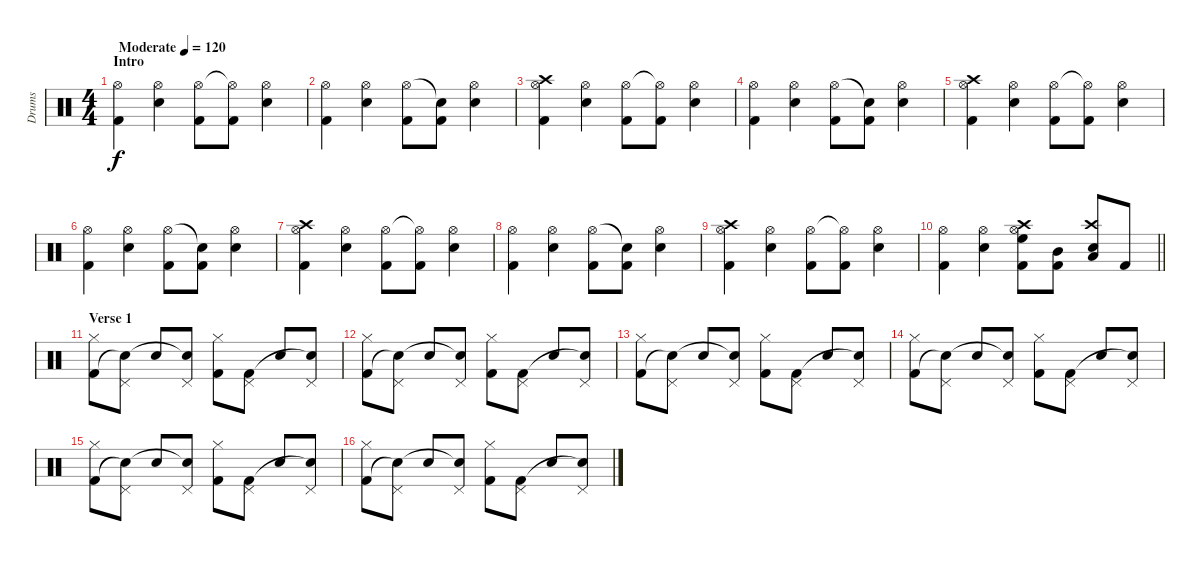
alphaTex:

\track ("Drums" "Drums") {instrument percussion}
\staff {score}
\articulation defaults
\ts (4 4)
\section ("" "Intro")
\tempo (120 "Moderate")
\clef neutral
\ks c
("Hi-Hat (open)" "Kick (hit) 2").4{dy f} ("Hi-Hat (open)" "Snare (hit) 2").4 ("Hi-Hat (open)" "Kick (hit) 2").8 ("Hi-Hat (open)"{t} "Kick (hit) 2").8 ("Hi-Hat (open)" "Snare (hit) 2").4 |
("Hi-Hat (open)" "Kick (hit) 2").4 ("Hi-Hat (open)" "Snare (hit) 2").4 ("Hi-Hat (open)" "Kick (hit) 2").8 ("Snare (hit)"{t} "Kick (hit) 2").8 ("Hi-Hat (open)" "Snare (hit) 2").4 |
("Crash high (hit)" "Hi-Hat (open)" "Kick (hit) 2").4 ("Hi-Hat (open)" "Snare (hit) 2").4 ("Hi-Hat (open)" "Kick (hit) 2").8 ("Hi-Hat (open)"{t} "Kick (hit) 2").8 ("Hi-Hat (open)" "Snare (hit) 2").4 |
("Hi-Hat (open)" "Kick (hit) 2").4 ("Hi-Hat (open)" "Snare (hit) 2").4 ("Hi-Hat (open)" "Kick (hit) 2").8 ("Snare (hit)"{t} "Kick (hit) 2").8 ("Hi-Hat (open)" "Snare (hit) 2").4 |
("Crash high (hit)" "Hi-Hat (open)" "Kick (hit) 2").4 ("Hi-Hat (open)" "Snare (hit) 2").4 ("Hi-Hat (open)" "Kick (hit) 2").8 ("Hi-Hat (open)"{t} "Kick (hit) 2").8 ("Hi-Hat (open)" "Snare (hit) 2").4 |
("Hi-Hat (open)" "Kick (hit) 2").4 ("Hi-Hat (open)" "Snare (hit) 2").4 ("Hi-Hat (open)" "Kick (hit) 2").8 ("Snare (hit)"{t} "Kick (hit) 2").8 ("Hi-Hat (open)" "Snare (hit) 2").4 |
("Crash high (hit)" "Hi-Hat (open)" "Kick (hit) 2").4 ("Hi-Hat (open)" "Snare (hit) 2").4 ("Hi-Hat (open)" "Kick (hit) 2").8 ("Hi-Hat (open)"{t} "Kick (hit) 2").8 ("Hi-Hat (open)" "Snare (hit) 2").4 |
("Hi-Hat (open)" "Kick (hit) 2").4 ("Hi-Hat (open)" "Snare (hit) 2").4 ("Hi-Hat (open)" "Kick (hit) 2").8 ("Snare (hit)"{t} "Kick (hit) 2").8 ("Hi-Hat (open)" "Snare (hit) 2").4 |
("Crash high (hit)" "Hi-Hat (open)" "Kick (hit) 2").4 ("Hi-Hat (open)" "Snare (hit) 2").4 ("Hi-Hat (open)" "Kick (hit) 2").8 ("Hi-Hat (open)"{t} "Kick (hit) 2").8 ("Hi-Hat (open)" "Snare (hit) 2").4 |
\barLineRight lightlight
("Hi-Hat (open)" "Kick (hit) 2").4 ("Hi-Hat (open)" "Snare (hit) 2").4 ("Crash high (hit)" "Hi-Hat (open)" "High Floor Tom (hit)" "Kick (hit) 2").8 ("Mid Tom (hit)" "Kick (hit) 2").8 ("Crash high (hit)" "Low Floor Tom (hit)" "Snare (hit) 2").8 "Kick (hit) 2".8 |
\section ("" "Verse 1")
("Hi-Hat (closed)" "Kick (hit) 2").8 ("Pedal Hi-Hat (hit)" "Snare (hit)"{t}).8 "Snare (hit) 2".8 ("Pedal Hi-Hat (hit)" "Snare (hit)"{t}).8 ("Hi-Hat (closed)" "Kick (hit) 2").8 ("Pedal Hi-Hat (hit)" "Kick (hit) 2").8 "Snare (hit) 2".8 ("Pedal Hi-Hat (hit)" "Snare (hit)"{t}).8 |
("Hi-Hat (closed)" "Kick (hit) 2").8 ("Pedal Hi-Hat (hit)" "Snare (hit)"{t}).8 "Snare (hit) 2".8 ("Pedal Hi-Hat (hit)" "Snare (hit)"{t}).8 ("Hi-Hat (closed)" "Kick (hit) 2").8 ("Pedal Hi-Hat (hit)" "Kick (hit) 2").8 "Snare (hit) 2".8 ("Pedal Hi-Hat (hit)" "Snare (hit)"{t}).8 |
("Hi-Hat (closed)" "Kick (hit) 2").8 ("Pedal Hi-Hat (hit)" "Snare (hit)"{t}).8 "Snare (hit) 2".8 ("Pedal Hi-Hat (hit)" "Snare (hit)"{t}).8 ("Hi-Hat (closed)" "Kick (hit) 2").8 ("Pedal Hi-Hat (hit)" "Kick (hit) 2").8 "Snare (hit) 2".8 ("Pedal Hi-Hat (hit)" "Snare (hit)"{t}).8 |
("Hi-Hat (closed)" "Kick (hit) 2").8 ("Pedal Hi-Hat (hit)" "Snare (hit)"{t}).8 "Snare (hit) 2".8 ("Pedal Hi-Hat (hit)" "Snare (hit)"{t}).8 ("Hi-Hat (closed)" "Kick (hit) 2").8 ("Pedal Hi-Hat (hit)" "Kick (hit) 2").8 "Snare (hit) 2".8 ("Pedal Hi-Hat (hit)" "Snare (hit)"{t}).8 |
("Hi-Hat (closed)" "Kick (hit) 2").8 ("Pedal Hi-Hat (hit)" "Snare (hit)"{t}).8 "Snare (hit) 2".8 ("Pedal Hi-Hat (hit)" "Snare (hit)"{t}).8 ("Hi-Hat (closed)" "Kick (hit) 2").8 ("Pedal Hi-Hat (hit)" "Kick (hit) 2").8 "Snare (hit) 2".8 ("Pedal Hi-Hat (hit)" "Snare (hit)"{t}).8 |
("Hi-Hat (closed)" "Kick (hit) 2").8 ("Pedal Hi-Hat (hit)" "Snare (hit)"{t}).8 "Snare (hit) 2".8 ("Pedal Hi-Hat (hit)" "Snare (hit)"{t}).8 ("Hi-Hat (closed)" "Kick (hit) 2").8 ("Pedal Hi-Hat (hit)" "Kick (hit) 2").8 "Snare (hit) 2".8 ("Pedal Hi-Hat (hit)" "Snare (hit)"{t}).8
